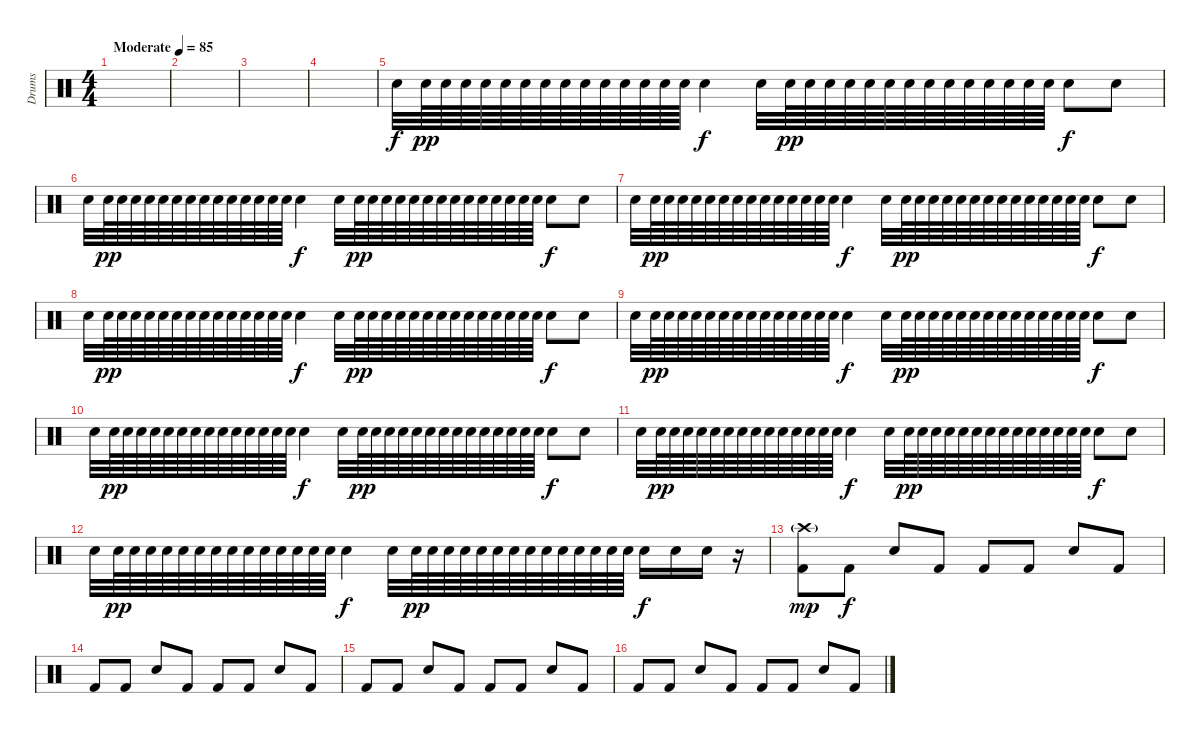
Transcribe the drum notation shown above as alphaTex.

\track ("Drums" "Drums") {instrument percussion}
\staff {score}
\articulation defaults
\ts (4 4)
\tempo (85 "Moderate")
\clef neutral
\ks c
|
|
|
|
"Electric Snare (hit)".32{balance 8} "Electric Snare (hit)".64{dy pp} "Electric Snare (hit)".64 "Electric Snare (hit)".64 "Electric Snare (hit)".64 "Electric Snare (hit)".64 "Electric Snare (hit)".64 "Electric Snare (hit)".64 "Electric Snare (hit)".64 "Electric Snare (hit)".64 "Electric Snare (hit)".64 "Electric Snare (hit)".64 "Electric Snare (hit)".64 "Electric Snare (hit)".64 "Electric Snare (hit)".64 "Electric Snare (hit)".4{dy f} "Electric Snare (hit)".32 "Electric Snare (hit)".64{dy pp} "Electric Snare (hit)".64 "Electric Snare (hit)".64 "Electric Snare (hit)".64 "Electric Snare (hit)".64 "Electric Snare (hit)".64 "Electric Snare (hit)".64 "Electric Snare (hit)".64 "Electric Snare (hit)".64 "Electric Snare (hit)".64 "Electric Snare (hit)".64 "Electric Snare (hit)".64 "Electric Snare (hit)".64 "Electric Snare (hit)".64 "Electric Snare (hit)".8{dy f} "Electric Snare (hit)".8 |
"Electric Snare (hit)".32 "Electric Snare (hit)".64{dy pp} "Electric Snare (hit)".64 "Electric Snare (hit)".64 "Electric Snare (hit)".64 "Electric Snare (hit)".64 "Electric Snare (hit)".64 "Electric Snare (hit)".64 "Electric Snare (hit)".64 "Electric Snare (hit)".64 "Electric Snare (hit)".64 "Electric Snare (hit)".64 "Electric Snare (hit)".64 "Electric Snare (hit)".64 "Electric Snare (hit)".64 "Electric Snare (hit)".4{dy f} "Electric Snare (hit)".32 "Electric Snare (hit)".64{dy pp} "Electric Snare (hit)".64 "Electric Snare (hit)".64 "Electric Snare (hit)".64 "Electric Snare (hit)".64 "Electric Snare (hit)".64 "Electric Snare (hit)".64 "Electric Snare (hit)".64 "Electric Snare (hit)".64 "Electric Snare (hit)".64 "Electric Snare (hit)".64 "Electric Snare (hit)".64 "Electric Snare (hit)".64 "Electric Snare (hit)".64 "Electric Snare (hit)".8{dy f} "Electric Snare (hit)".8 |
"Electric Snare (hit)".32 "Electric Snare (hit)".64{dy pp} "Electric Snare (hit)".64 "Electric Snare (hit)".64 "Electric Snare (hit)".64 "Electric Snare (hit)".64 "Electric Snare (hit)".64 "Electric Snare (hit)".64 "Electric Snare (hit)".64 "Electric Snare (hit)".64 "Electric Snare (hit)".64 "Electric Snare (hit)".64 "Electric Snare (hit)".64 "Electric Snare (hit)".64 "Electric Snare (hit)".64 "Electric Snare (hit)".4{dy f} "Electric Snare (hit)".32 "Electric Snare (hit)".64{dy pp} "Electric Snare (hit)".64 "Electric Snare (hit)".64 "Electric Snare (hit)".64 "Electric Snare (hit)".64 "Electric Snare (hit)".64 "Electric Snare (hit)".64 "Electric Snare (hit)".64 "Electric Snare (hit)".64 "Electric Snare (hit)".64 "Electric Snare (hit)".64 "Electric Snare (hit)".64 "Electric Snare (hit)".64 "Electric Snare (hit)".64 "Electric Snare (hit)".8{dy f} "Electric Snare (hit)".8 |
"Electric Snare (hit)".32 "Electric Snare (hit)".64{dy pp} "Electric Snare (hit)".64 "Electric Snare (hit)".64 "Electric Snare (hit)".64 "Electric Snare (hit)".64 "Electric Snare (hit)".64 "Electric Snare (hit)".64 "Electric Snare (hit)".64 "Electric Snare (hit)".64 "Electric Snare (hit)".64 "Electric Snare (hit)".64 "Electric Snare (hit)".64 "Electric Snare (hit)".64 "Electric Snare (hit)".64 "Electric Snare (hit)".4{dy f} "Electric Snare (hit)".32 "Electric Snare (hit)".64{dy pp} "Electric Snare (hit)".64 "Electric Snare (hit)".64 "Electric Snare (hit)".64 "Electric Snare (hit)".64 "Electric Snare (hit)".64 "Electric Snare (hit)".64 "Electric Snare (hit)".64 "Electric Snare (hit)".64 "Electric Snare (hit)".64 "Electric Snare (hit)".64 "Electric Snare (hit)".64 "Electric Snare (hit)".64 "Electric Snare (hit)".64 "Electric Snare (hit)".8{dy f} "Electric Snare (hit)".8 |
"Electric Snare (hit)".32 "Electric Snare (hit)".64{dy pp} "Electric Snare (hit)".64 "Electric Snare (hit)".64 "Electric Snare (hit)".64 "Electric Snare (hit)".64 "Electric Snare (hit)".64 "Electric Snare (hit)".64 "Electric Snare (hit)".64 "Electric Snare (hit)".64 "Electric Snare (hit)".64 "Electric Snare (hit)".64 "Electric Snare (hit)".64 "Electric Snare (hit)".64 "Electric Snare (hit)".64 "Electric Snare (hit)".4{dy f} "Electric Snare (hit)".32 "Electric Snare (hit)".64{dy pp} "Electric Snare (hit)".64 "Electric Snare (hit)".64 "Electric Snare (hit)".64 "Electric Snare (hit)".64 "Electric Snare (hit)".64 "Electric Snare (hit)".64 "Electric Snare (hit)".64 "Electric Snare (hit)".64 "Electric Snare (hit)".64 "Electric Snare (hit)".64 "Electric Snare (hit)".64 "Electric Snare (hit)".64 "Electric Snare (hit)".64 "Electric Snare (hit)".8{dy f} "Electric Snare (hit)".8 |
"Electric Snare (hit)".32 "Electric Snare (hit)".64{dy pp} "Electric Snare (hit)".64 "Electric Snare (hit)".64 "Electric Snare (hit)".64 "Electric Snare (hit)".64 "Electric Snare (hit)".64 "Electric Snare (hit)".64 "Electric Snare (hit)".64 "Electric Snare (hit)".64 "Electric Snare (hit)".64 "Electric Snare (hit)".64 "Electric Snare (hit)".64 "Electric Snare (hit)".64 "Electric Snare (hit)".64 "Electric Snare (hit)".4{dy f} "Electric Snare (hit)".32 "Electric Snare (hit)".64{dy pp} "Electric Snare (hit)".64 "Electric Snare (hit)".64 "Electric Snare (hit)".64 "Electric Snare (hit)".64 "Electric Snare (hit)".64 "Electric Snare (hit)".64 "Electric Snare (hit)".64 "Electric Snare (hit)".64 "Electric Snare (hit)".64 "Electric Snare (hit)".64 "Electric Snare (hit)".64 "Electric Snare (hit)".64 "Electric Snare (hit)".64 "Electric Snare (hit)".8{dy f} "Electric Snare (hit)".8 |
"Electric Snare (hit)".32 "Electric Snare (hit)".64{dy pp} "Electric Snare (hit)".64 "Electric Snare (hit)".64 "Electric Snare (hit)".64 "Electric Snare (hit)".64 "Electric Snare (hit)".64 "Electric Snare (hit)".64 "Electric Snare (hit)".64 "Electric Snare (hit)".64 "Electric Snare (hit)".64 "Electric Snare (hit)".64 "Electric Snare (hit)".64 "Electric Snare (hit)".64 "Electric Snare (hit)".64 "Electric Snare (hit)".4{dy f} "Electric Snare (hit)".32 "Electric Snare (hit)".64{dy pp} "Electric Snare (hit)".64 "Electric Snare (hit)".64 "Electric Snare (hit)".64 "Electric Snare (hit)".64 "Electric Snare (hit)".64 "Electric Snare (hit)".64 "Electric Snare (hit)".64 "Electric Snare (hit)".64 "Electric Snare (hit)".64 "Electric Snare (hit)".64 "Electric Snare (hit)".64 "Electric Snare (hit)".64 "Electric Snare (hit)".64 "Electric Snare (hit)".8{dy f} "Electric Snare (hit)".8 |
"Electric Snare (hit)".32 "Electric Snare (hit)".64{dy pp} "Electric Snare (hit)".64 "Electric Snare (hit)".64 "Electric Snare (hit)".64 "Electric Snare (hit)".64 "Electric Snare (hit)".64 "Electric Snare (hit)".64 "Electric Snare (hit)".64 "Electric Snare (hit)".64 "Electric Snare (hit)".64 "Electric Snare (hit)".64 "Electric Snare (hit)".64 "Electric Snare (hit)".64 "Electric Snare (hit)".64 "Electric Snare (hit)".4{dy f} "Electric Snare (hit)".32 "Electric Snare (hit)".64{dy pp} "Electric Snare (hit)".64 "Electric Snare (hit)".64 "Electric Snare (hit)".64 "Electric Snare (hit)".64 "Electric Snare (hit)".64 "Electric Snare (hit)".64 "Electric Snare (hit)".64 "Electric Snare (hit)".64 "Electric Snare (hit)".64 "Electric Snare (hit)".64 "Electric Snare (hit)".64 "Electric Snare (hit)".64 "Electric Snare (hit)".64 "Electric Snare (hit)".16{dy f} "Electric Snare (hit)".16 "Electric Snare (hit)".16 r.16 |
("Kick (hit) 2" "Crash high (hit)"{g}).8{dy mp} "Kick (hit) 2".8{dy f} "Electric Snare (hit)".8 "Kick (hit) 2".8 "Kick (hit) 2".8 "Kick (hit) 2".8 "Electric Snare (hit)".8 "Kick (hit) 2".8 |
"Kick (hit) 2".8 "Kick (hit) 2".8 "Electric Snare (hit)".8 "Kick (hit) 2".8 "Kick (hit) 2".8 "Kick (hit) 2".8 "Electric Snare (hit)".8 "Kick (hit) 2".8 |
"Kick (hit) 2".8 "Kick (hit) 2".8 "Electric Snare (hit)".8 "Kick (hit) 2".8 "Kick (hit) 2".8 "Kick (hit) 2".8 "Electric Snare (hit)".8 "Kick (hit) 2".8 |
"Kick (hit) 2".8 "Kick (hit) 2".8 "Electric Snare (hit)".8 "Kick (hit) 2".8 "Kick (hit) 2".8 "Kick (hit) 2".8 "Electric Snare (hit)".8 "Kick (hit) 2".8
